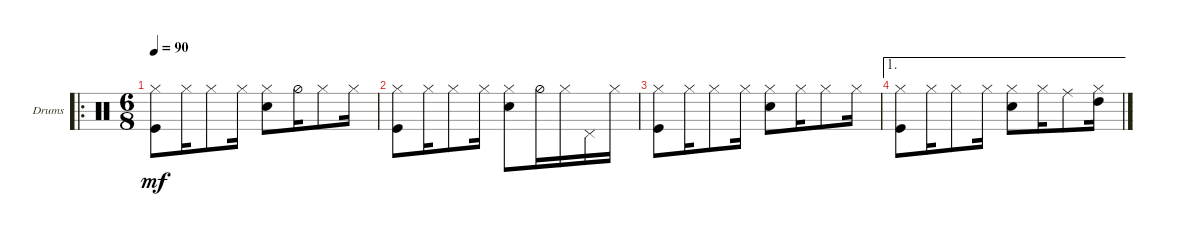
\defaultSystemsLayout 4
\bracketExtendMode groupsimilarinstruments
\firstSystemTrackNameOrientation horizontal
\otherSystemsTrackNameOrientation horizontal
\track ("Drumkit" "Drums") {instrument percussion}
\staff {score}
\articulation defaults
\ro
\ts (6 8)
\tempo 90
\clef neutral
\ks c
("Kick (hit)" "Hi-Hat (closed)").8{dy mf} "Hi-Hat (closed)".16 "Hi-Hat (closed)".8 "Hi-Hat (closed)".16 ("Snare (hit) 2" "Hi-Hat (closed)").8 "Hi-Hat (half)".16 "Hi-Hat (closed)".8 "Hi-Hat (closed)".16 |
("Kick (hit)" "Hi-Hat (closed)").8 "Hi-Hat (closed)".16 "Hi-Hat (closed)".8 "Hi-Hat (closed)".16 ("Snare (hit) 2" "Hi-Hat (closed)").8 "Hi-Hat (half)".16 "Hi-Hat (closed)".16 "Pedal Hi-Hat (hit)".16 "Hi-Hat (closed)".16 |
("Kick (hit)" "Hi-Hat (closed)").8 "Hi-Hat (closed)".16 "Hi-Hat (closed)".8 "Hi-Hat (closed)".16 ("Snare (hit) 2" "Hi-Hat (closed)").8 "Hi-Hat (closed)".16 "Hi-Hat (closed)".8 "Hi-Hat (closed)".16 |
\ae 1
("Kick (hit)" "Hi-Hat (closed)").8 "Hi-Hat (closed)".16 "Hi-Hat (closed)".8 "Hi-Hat (closed)".16 ("Snare (hit) 2" "Hi-Hat (closed)").8 "Hi-Hat (closed)".16 "Ride (middle)".8 ("Hi-Hat (closed)" "High Tom (hit)").16
